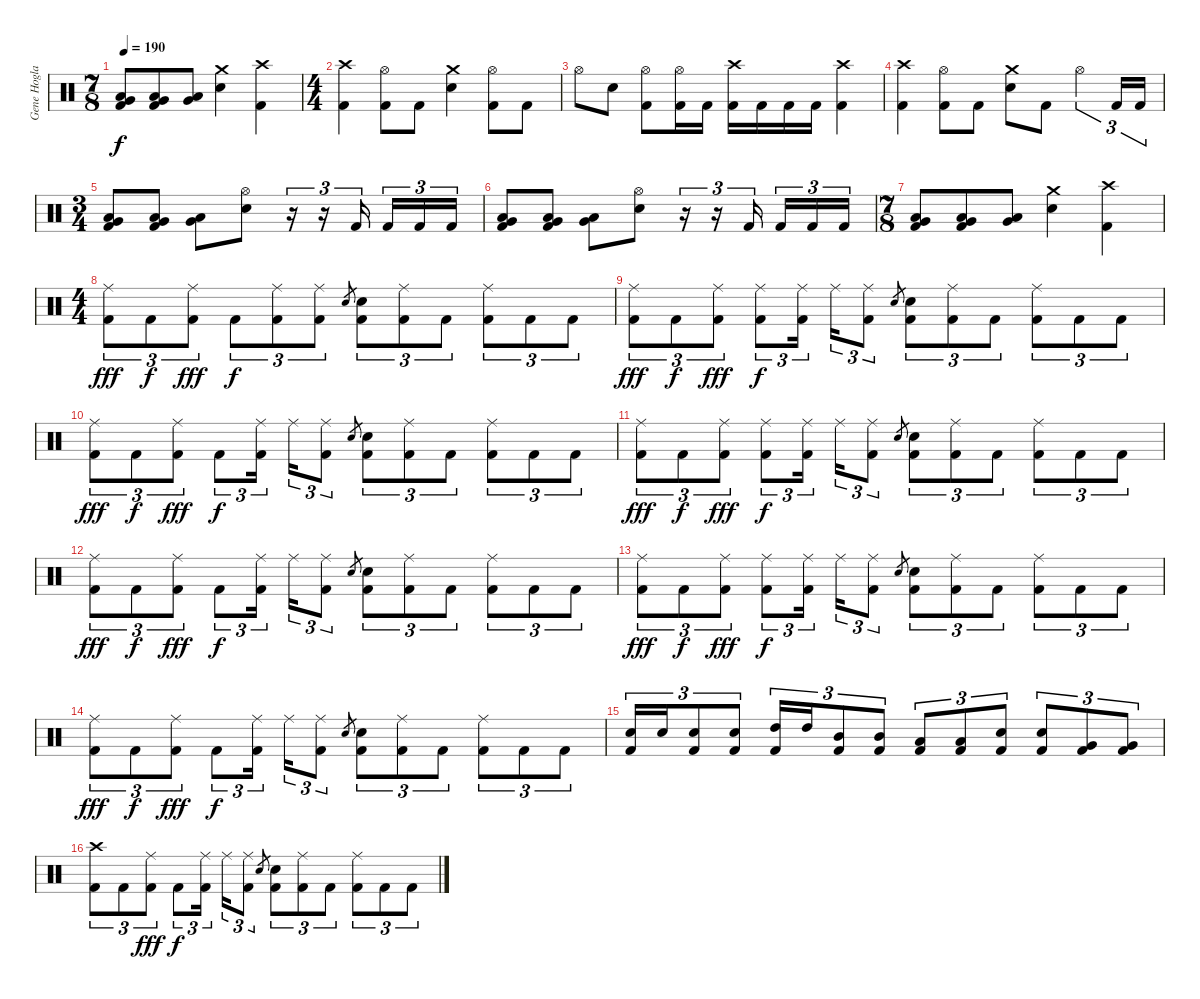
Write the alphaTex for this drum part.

\track ("Gene Hoglan" "Gene Hogla") {instrument percussion}
\staff {score}
\articulation defaults
\ts (7 8)
\tempo 190
\clef neutral
\ks c
("Low Tom (hit)" "Very Low Tom (hit)" "Kick (hit) 2").8{dy f} ("Low Tom (hit)" "Very Low Tom (hit)" "Kick (hit) 2").8 ("Very Low Tom (hit)" "Low Floor Tom (hit)").8 ("Crash medium (hit)" "Electric Snare (hit)").4 ("Crash high (hit)" "Kick (hit) 2").4 |
\ts (4 4)
("Crash high (hit)" "Kick (hit) 2").4 ("Hi-Hat (open)" "Kick (hit) 2").8 "Kick (hit) 2".8 ("Crash medium (hit)" "Electric Snare (hit)").4 ("Hi-Hat (open)" "Kick (hit) 2").8 "Kick (hit) 2".8 |
"Hi-Hat (open)".8 "Electric Snare (hit)".8 ("Hi-Hat (open)" "Kick (hit) 2").8 ("Hi-Hat (open)" "Kick (hit) 2").16 "Kick (hit) 2".16 ("Crash high (hit)" "Kick (hit) 2").16 "Kick (hit) 2".16 "Kick (hit) 2".16 "Kick (hit) 2".16 ("Crash high (hit)" "Kick (hit) 2").4 |
("Crash high (hit)" "Kick (hit) 2").4 ("Hi-Hat (open)" "Kick (hit) 2").8 "Kick (hit) 2".8 ("Crash medium (hit)" "Electric Snare (hit)").8 "Kick (hit) 2".8 "Hi-Hat (open)".4{tu (3 2)} "Kick (hit) 2".16{tu (3 2)} "Kick (hit) 2".16{tu (3 2)} |
\ts (3 4)
("Low Tom (hit)" "Very Low Tom (hit)" "Kick (hit) 2").8 ("Low Tom (hit)" "Very Low Tom (hit)" "Kick (hit) 2").8 ("Very Low Tom (hit)" "Low Floor Tom (hit)").8 ("Hi-Hat (open)" "Electric Snare (hit)").8 r.16{tu (3 2)} r.16{tu (3 2)} "Kick (hit) 2".16{tu (3 2)} "Kick (hit) 2".16{tu (3 2)} "Kick (hit) 2".16{tu (3 2)} "Kick (hit) 2".16{tu (3 2)} |
("Low Tom (hit)" "Very Low Tom (hit)" "Kick (hit) 2").8 ("Low Tom (hit)" "Very Low Tom (hit)" "Kick (hit) 2").8 ("Very Low Tom (hit)" "Low Floor Tom (hit)").8 ("Hi-Hat (open)" "Electric Snare (hit)").8 r.16{tu (3 2)} r.16{tu (3 2)} "Kick (hit) 2".16{tu (3 2)} "Kick (hit) 2".16{tu (3 2)} "Kick (hit) 2".16{tu (3 2)} "Kick (hit) 2".16{tu (3 2)} |
\ts (7 8)
("Low Tom (hit)" "Very Low Tom (hit)" "Kick (hit) 2").8 ("Low Tom (hit)" "Very Low Tom (hit)" "Kick (hit) 2").8 ("Very Low Tom (hit)" "Low Floor Tom (hit)").8 ("Crash medium (hit)" "Electric Snare (hit)").4 ("Crash high (hit)" "Kick (hit) 2").4 |
\ts (4 4)
("Ride (middle)" "Kick (hit) 2").8{tu (3 2) dy fff} "Kick (hit) 2".8{tu (3 2) dy f} ("Ride (middle)" "Kick (hit) 2").8{tu (3 2) dy fff} "Kick (hit) 2".8{tu (3 2) dy f} ("Ride (middle)" "Kick (hit) 2").8{tu (3 2)} ("Ride (middle)" "Kick (hit) 2").8{tu (3 2)} "Electric Snare (hit)".8{gr} ("Electric Snare (hit)" "Kick (hit) 2").8{tu (3 2)} ("Ride (middle)" "Kick (hit) 2").8{tu (3 2)} "Kick (hit) 2".8{tu (3 2)} ("Ride (middle)" "Kick (hit) 2").8{tu (3 2)} "Kick (hit) 2".8{tu (3 2)} "Kick (hit) 2".8{tu (3 2)} |
("Ride (middle)" "Kick (hit) 2").8{tu (3 2) dy fff} "Kick (hit) 2".8{tu (3 2) dy f} ("Ride (middle)" "Kick (hit) 2").8{tu (3 2) dy fff} ("Ride (middle)" "Kick (hit) 2").8{tu (3 2) dy f} ("Ride (middle)" "Kick (hit) 2").16{tu (3 2)} "Ride (middle)".16{tu (3 2)} ("Ride (middle)" "Kick (hit) 2").8{tu (3 2)} "Electric Snare (hit)".8{gr} ("Electric Snare (hit)" "Kick (hit) 2").8{tu (3 2)} ("Ride (middle)" "Kick (hit) 2").8{tu (3 2)} "Kick (hit) 2".8{tu (3 2)} ("Ride (middle)" "Kick (hit) 2").8{tu (3 2)} "Kick (hit) 2".8{tu (3 2)} "Kick (hit) 2".8{tu (3 2)} |
("Ride (middle)" "Kick (hit) 2").8{tu (3 2) dy fff} "Kick (hit) 2".8{tu (3 2) dy f} ("Ride (middle)" "Kick (hit) 2").8{tu (3 2) dy fff} "Kick (hit) 2".8{tu (3 2) dy f} ("Ride (middle)" "Kick (hit) 2").16{tu (3 2)} "Ride (middle)".16{tu (3 2)} ("Ride (middle)" "Kick (hit) 2").8{tu (3 2)} "Electric Snare (hit)".8{gr} ("Electric Snare (hit)" "Kick (hit) 2").8{tu (3 2)} ("Ride (middle)" "Kick (hit) 2").8{tu (3 2)} "Kick (hit) 2".8{tu (3 2)} ("Ride (middle)" "Kick (hit) 2").8{tu (3 2)} "Kick (hit) 2".8{tu (3 2)} "Kick (hit) 2".8{tu (3 2)} |
("Ride (middle)" "Kick (hit) 2").8{tu (3 2) dy fff} "Kick (hit) 2".8{tu (3 2) dy f} ("Ride (middle)" "Kick (hit) 2").8{tu (3 2) dy fff} ("Ride (middle)" "Kick (hit) 2").8{tu (3 2) dy f} ("Ride (middle)" "Kick (hit) 2").16{tu (3 2)} "Ride (middle)".16{tu (3 2)} ("Ride (middle)" "Kick (hit) 2").8{tu (3 2)} "Electric Snare (hit)".8{gr} ("Electric Snare (hit)" "Kick (hit) 2").8{tu (3 2)} ("Ride (middle)" "Kick (hit) 2").8{tu (3 2)} "Kick (hit) 2".8{tu (3 2)} ("Ride (middle)" "Kick (hit) 2").8{tu (3 2)} "Kick (hit) 2".8{tu (3 2)} "Kick (hit) 2".8{tu (3 2)} |
("Ride (middle)" "Kick (hit) 2").8{tu (3 2) dy fff} "Kick (hit) 2".8{tu (3 2) dy f} ("Ride (middle)" "Kick (hit) 2").8{tu (3 2) dy fff} "Kick (hit) 2".8{tu (3 2) dy f} ("Ride (middle)" "Kick (hit) 2").16{tu (3 2)} "Ride (middle)".16{tu (3 2)} ("Ride (middle)" "Kick (hit) 2").8{tu (3 2)} "Electric Snare (hit)".8{gr} ("Electric Snare (hit)" "Kick (hit) 2").8{tu (3 2)} ("Ride (middle)" "Kick (hit) 2").8{tu (3 2)} "Kick (hit) 2".8{tu (3 2)} ("Ride (middle)" "Kick (hit) 2").8{tu (3 2)} "Kick (hit) 2".8{tu (3 2)} "Kick (hit) 2".8{tu (3 2)} |
("Ride (middle)" "Kick (hit) 2").8{tu (3 2) dy fff} "Kick (hit) 2".8{tu (3 2) dy f} ("Ride (middle)" "Kick (hit) 2").8{tu (3 2) dy fff} ("Ride (middle)" "Kick (hit) 2").8{tu (3 2) dy f} ("Ride (middle)" "Kick (hit) 2").16{tu (3 2)} "Ride (middle)".16{tu (3 2)} ("Ride (middle)" "Kick (hit) 2").8{tu (3 2)} "Electric Snare (hit)".8{gr} ("Electric Snare (hit)" "Kick (hit) 2").8{tu (3 2)} ("Ride (middle)" "Kick (hit) 2").8{tu (3 2)} "Kick (hit) 2".8{tu (3 2)} ("Ride (middle)" "Kick (hit) 2").8{tu (3 2)} "Kick (hit) 2".8{tu (3 2)} "Kick (hit) 2".8{tu (3 2)} |
("Ride (middle)" "Kick (hit) 2").8{tu (3 2) dy fff} "Kick (hit) 2".8{tu (3 2) dy f} ("Ride (middle)" "Kick (hit) 2").8{tu (3 2) dy fff} "Kick (hit) 2".8{tu (3 2) dy f} ("Ride (middle)" "Kick (hit) 2").16{tu (3 2)} "Ride (middle)".16{tu (3 2)} ("Ride (middle)" "Kick (hit) 2").8{tu (3 2)} "Electric Snare (hit)".8{gr} ("Electric Snare (hit)" "Kick (hit) 2").8{tu (3 2)} ("Ride (middle)" "Kick (hit) 2").8{tu (3 2)} "Kick (hit) 2".8{tu (3 2)} ("Ride (middle)" "Kick (hit) 2").8{tu (3 2)} "Kick (hit) 2".8{tu (3 2)} "Kick (hit) 2".8{tu (3 2)} |
("Electric Snare (hit)" "Kick (hit) 2").16{tu (3 2)} "Electric Snare (hit)".16{tu (3 2)} ("Electric Snare (hit)" "Kick (hit) 2").8{tu (3 2)} ("Electric Snare (hit)" "Kick (hit) 2").8{tu (3 2)} ("High Tom (hit)" "Kick (hit) 2").16{tu (3 2)} "High Tom (hit)".16{tu (3 2)} ("Mid Tom (hit)" "Kick (hit) 2").8{tu (3 2)} ("Mid Tom (hit)" "Kick (hit) 2").8{tu (3 2)} ("Low Tom (hit)" "Kick (hit) 2").8{tu (3 2)} ("Low Tom (hit)" "Kick (hit) 2").8{tu (3 2)} ("Electric Snare (hit)" "Kick (hit) 2").8{tu (3 2)} ("Electric Snare (hit)" "Kick (hit) 2").8{tu (3 2)} ("Very Low Tom (hit)" "Kick (hit) 2").8{tu (3 2)} ("Very Low Tom (hit)" "Kick (hit) 2").8{tu (3 2)} |
("Crash high (hit)" "Kick (hit) 2").8{tu (3 2)} "Kick (hit) 2".8{tu (3 2)} ("Ride (middle)" "Kick (hit) 2").8{tu (3 2) dy fff} "Kick (hit) 2".8{tu (3 2) dy f} ("Ride (middle)" "Kick (hit) 2").16{tu (3 2)} "Ride (middle)".16{tu (3 2)} ("Ride (middle)" "Kick (hit) 2").8{tu (3 2)} "Electric Snare (hit)".8{gr} ("Electric Snare (hit)" "Kick (hit) 2").8{tu (3 2)} ("Ride (middle)" "Kick (hit) 2").8{tu (3 2)} "Kick (hit) 2".8{tu (3 2)} ("Ride (middle)" "Kick (hit) 2").8{tu (3 2)} "Kick (hit) 2".8{tu (3 2)} "Kick (hit) 2".8{tu (3 2)}
